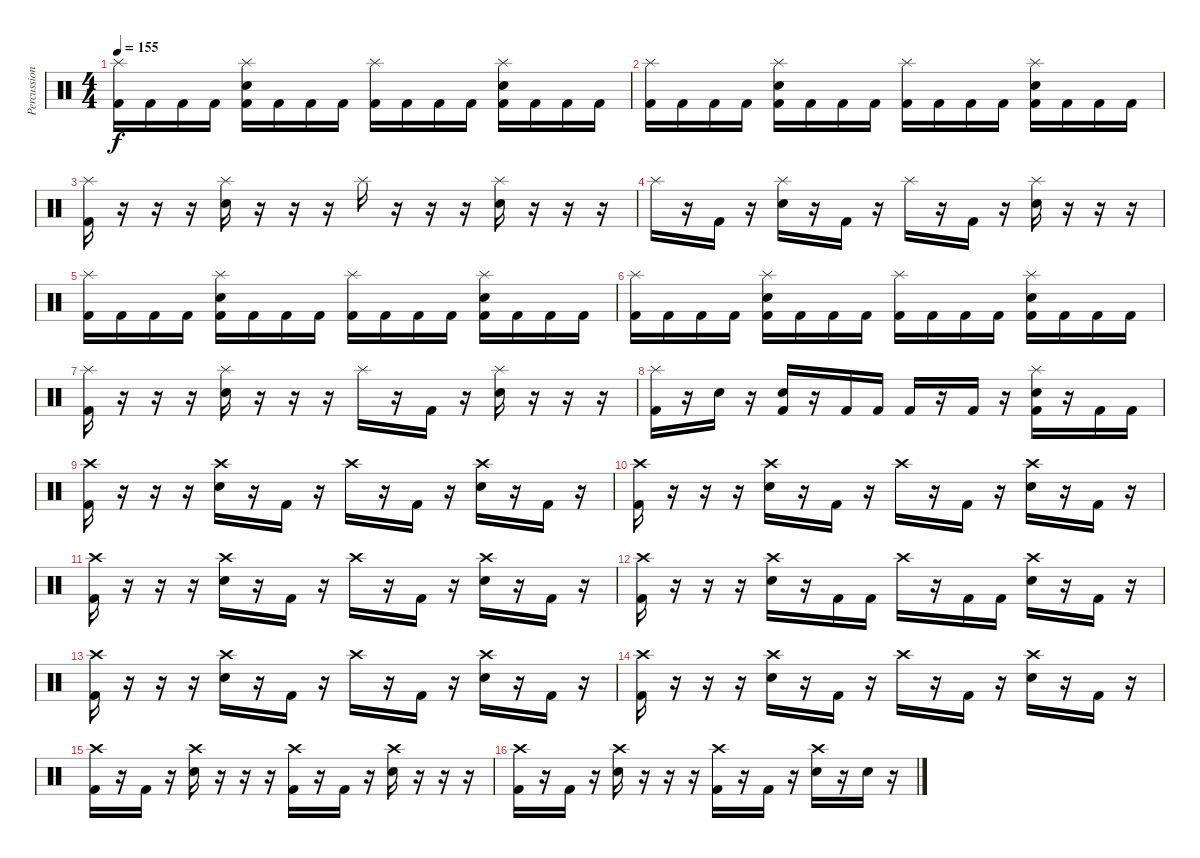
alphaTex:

\track ("Percussion" "Percussion") {instrument percussion}
\staff {score}
\articulation defaults
\ts (4 4)
\tempo 155
\clef neutral
\ks c
("Splash (hit)" "Kick (hit) 2").16{dy f} "Kick (hit) 2".16 "Kick (hit) 2".16 "Kick (hit) 2".16 ("Splash (hit)" "Snare (hit) 2" "Kick (hit) 2").16 "Kick (hit) 2".16 "Kick (hit) 2".16 "Kick (hit) 2".16 ("Splash (hit)" "Kick (hit) 2").16 "Kick (hit) 2".16 "Kick (hit) 2".16 "Kick (hit) 2".16 ("Splash (hit)" "Snare (hit) 2" "Kick (hit) 2").16 "Kick (hit) 2".16 "Kick (hit) 2".16 "Kick (hit) 2".16 |
("Splash (hit)" "Kick (hit) 2").16 "Kick (hit) 2".16 "Kick (hit) 2".16 "Kick (hit) 2".16 ("Splash (hit)" "Snare (hit) 2" "Kick (hit) 2").16 "Kick (hit) 2".16 "Kick (hit) 2".16 "Kick (hit) 2".16 ("Splash (hit)" "Kick (hit) 2").16 "Kick (hit) 2".16 "Kick (hit) 2".16 "Kick (hit) 2".16 ("Splash (hit)" "Snare (hit) 2" "Kick (hit) 2").16 "Kick (hit) 2".16 "Kick (hit) 2".16 "Kick (hit) 2".16 |
("Splash (hit)" "Kick (hit) 2").16 r.16 r.16 r.16 ("Splash (hit)" "Snare (hit) 2").16 r.16 r.16 r.16 "Splash (hit)".16 r.16 r.16 r.16 ("Splash (hit)" "Snare (hit) 2").16 r.16 r.16 r.16 |
"Splash (hit)".16 r.16 "Kick (hit) 2".16 r.16 ("Splash (hit)" "Snare (hit) 2").16 r.16 "Kick (hit) 2".16 r.16 "Splash (hit)".16 r.16 "Kick (hit) 2".16 r.16 ("Splash (hit)" "Snare (hit) 2").16 r.16 r.16 r.16 |
("Splash (hit)" "Kick (hit) 2").16 "Kick (hit) 2".16 "Kick (hit) 2".16 "Kick (hit) 2".16 ("Splash (hit)" "Snare (hit) 2" "Kick (hit) 2").16 "Kick (hit) 2".16 "Kick (hit) 2".16 "Kick (hit) 2".16 ("Splash (hit)" "Kick (hit) 2").16 "Kick (hit) 2".16 "Kick (hit) 2".16 "Kick (hit) 2".16 ("Splash (hit)" "Snare (hit) 2" "Kick (hit) 2").16 "Kick (hit) 2".16 "Kick (hit) 2".16 "Kick (hit) 2".16 |
("Splash (hit)" "Kick (hit) 2").16 "Kick (hit) 2".16 "Kick (hit) 2".16 "Kick (hit) 2".16 ("Splash (hit)" "Snare (hit) 2" "Kick (hit) 2").16 "Kick (hit) 2".16 "Kick (hit) 2".16 "Kick (hit) 2".16 ("Splash (hit)" "Kick (hit) 2").16 "Kick (hit) 2".16 "Kick (hit) 2".16 "Kick (hit) 2".16 ("Splash (hit)" "Snare (hit) 2" "Kick (hit) 2").16 "Kick (hit) 2".16 "Kick (hit) 2".16 "Kick (hit) 2".16 |
("Splash (hit)" "Kick (hit) 2").16 r.16 r.16 r.16 ("Splash (hit)" "Snare (hit) 2").16 r.16 r.16 r.16 "Splash (hit)".16 r.16 "Kick (hit) 2".16 r.16 ("Splash (hit)" "Snare (hit) 2").16 r.16 r.16 r.16 |
("Splash (hit)" "Kick (hit) 2").16 r.16 "Snare (hit) 2".16 r.16 ("Snare (hit) 2" "Kick (hit) 2").16 r.16 "Kick (hit) 2".16 "Kick (hit) 2".16 "Kick (hit) 2".16 r.16 "Kick (hit) 2".16 r.16 ("Splash (hit)" "Snare (hit) 2" "Kick (hit) 2").16 r.16 "Kick (hit) 2".16 "Kick (hit) 2".16 |
("Crash high (hit)" "Kick (hit) 2").16 r.16 r.16 r.16 ("Crash high (hit)" "Snare (hit) 2").16 r.16 "Kick (hit) 2".16 r.16 "Crash high (hit)".16 r.16 "Kick (hit) 2".16 r.16 ("Crash high (hit)" "Snare (hit) 2").16 r.16 "Kick (hit) 2".16 r.16 |
("Crash high (hit)" "Kick (hit) 2").16 r.16 r.16 r.16 ("Crash high (hit)" "Snare (hit) 2").16 r.16 "Kick (hit) 2".16 r.16 "Crash high (hit)".16 r.16 "Kick (hit) 2".16 r.16 ("Crash high (hit)" "Snare (hit) 2").16 r.16 "Kick (hit) 2".16 r.16 |
("Crash high (hit)" "Kick (hit) 2").16 r.16 r.16 r.16 ("Crash high (hit)" "Snare (hit) 2").16 r.16 "Kick (hit) 2".16 r.16 "Crash high (hit)".16 r.16 "Kick (hit) 2".16 r.16 ("Crash high (hit)" "Snare (hit) 2").16 r.16 "Kick (hit) 2".16 r.16 |
("Crash high (hit)" "Kick (hit) 2").16 r.16 r.16 r.16 ("Crash high (hit)" "Snare (hit) 2").16 r.16 "Kick (hit) 2".16 "Kick (hit) 2".16 "Crash high (hit)".16 r.16 "Kick (hit) 2".16 "Kick (hit) 2".16 ("Crash high (hit)" "Snare (hit) 2").16 r.16 "Kick (hit) 2".16 r.16 |
("Crash high (hit)" "Kick (hit) 2").16 r.16 r.16 r.16 ("Crash high (hit)" "Snare (hit) 2").16 r.16 "Kick (hit) 2".16 r.16 "Crash high (hit)".16 r.16 "Kick (hit) 2".16 r.16 ("Crash high (hit)" "Snare (hit) 2").16 r.16 "Kick (hit) 2".16 r.16 |
("Crash high (hit)" "Kick (hit) 2").16 r.16 r.16 r.16 ("Crash high (hit)" "Snare (hit) 2").16 r.16 "Kick (hit) 2".16 r.16 "Crash high (hit)".16 r.16 "Kick (hit) 2".16 r.16 ("Crash high (hit)" "Snare (hit) 2").16 r.16 "Kick (hit) 2".16 r.16 |
("Crash high (hit)" "Kick (hit) 2").16 r.16 "Kick (hit) 2".16 r.16 ("Crash high (hit)" "Snare (hit) 2").16 r.16 r.16 r.16 ("Crash high (hit)" "Kick (hit) 2").16 r.16 "Kick (hit) 2".16 r.16 ("Crash high (hit)" "Snare (hit) 2").16 r.16 r.16 r.16 |
("Crash high (hit)" "Kick (hit) 2").16 r.16 "Kick (hit) 2".16 r.16 ("Crash high (hit)" "Snare (hit) 2").16 r.16 r.16 r.16 ("Crash high (hit)" "Kick (hit) 2").16 r.16 "Kick (hit) 2".16 r.16 ("Crash high (hit)" "Snare (hit) 2").16 r.16 "Snare (hit) 2".16 r.16
